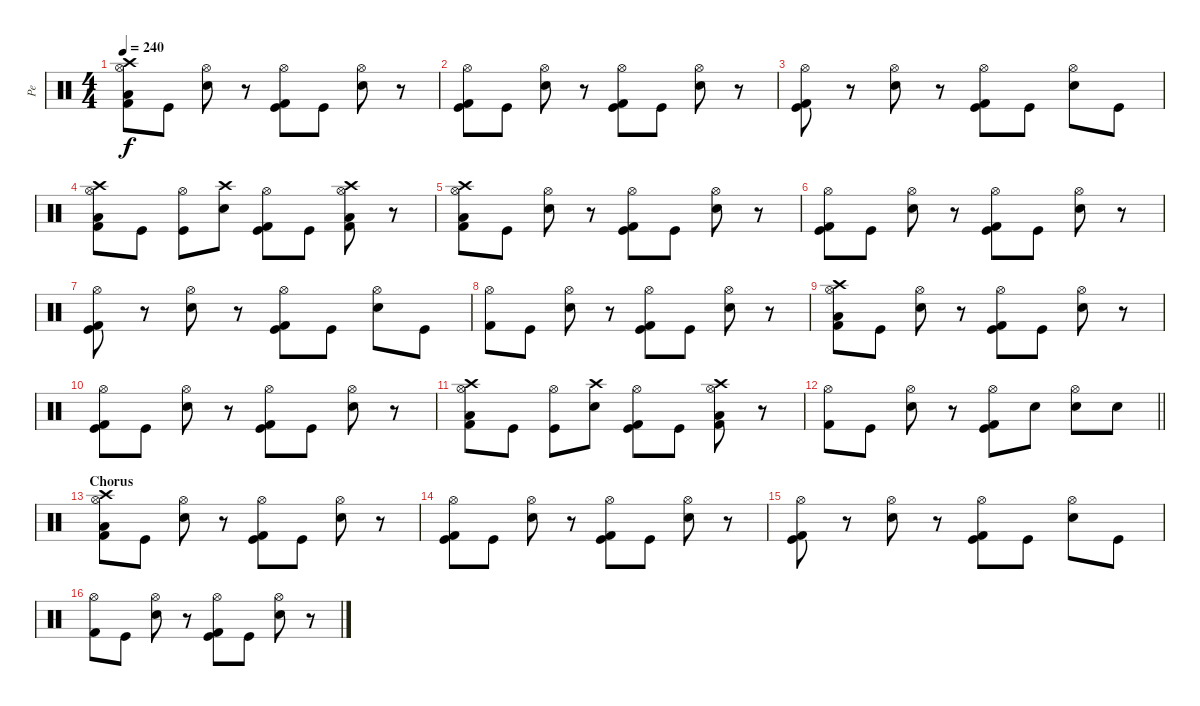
\track ("Pe" "Pe") {instrument percussion}
\staff {score}
\articulation defaults
\ts (4 4)
\tempo 240
\clef neutral
\ks c
("Low Tom (hit)" "Hi-Hat (open)" "Kick (hit) 2" "Crash high (hit)").8{dy f} "Kick (hit)".8 ("Electric Snare (hit)" "Hi-Hat (open)").8 r.8 ("Kick (hit)" "Hi-Hat (open)" "Kick (hit) 2").8 "Kick (hit)".8 ("Electric Snare (hit)" "Hi-Hat (open)").8 r.8 |
("Kick (hit)" "Hi-Hat (open)" "Kick (hit) 2").8 "Kick (hit)".8 ("Electric Snare (hit)" "Hi-Hat (open)").8 r.8 ("Kick (hit)" "Hi-Hat (open)" "Kick (hit) 2").8 "Kick (hit)".8 ("Electric Snare (hit)" "Hi-Hat (open)").8 r.8 |
("Kick (hit)" "Hi-Hat (open)" "Kick (hit) 2").8 r.8 ("Electric Snare (hit)" "Hi-Hat (open)").8 r.8 ("Kick (hit)" "Hi-Hat (open)" "Kick (hit) 2").8 "Kick (hit)".8 ("Electric Snare (hit)" "Hi-Hat (open)").8 "Kick (hit)".8 |
("Low Tom (hit)" "Hi-Hat (open)" "Kick (hit) 2" "Crash high (hit)").8 "Kick (hit)".8 ("Kick (hit)" "Hi-Hat (open)").8 ("Crash high (hit)" "Electric Snare (hit)").8 ("Kick (hit)" "Hi-Hat (open)" "Kick (hit) 2").8 "Kick (hit)".8 ("Low Tom (hit)" "Hi-Hat (open)" "Kick (hit) 2" "Crash high (hit)").8 r.8 |
("Low Tom (hit)" "Hi-Hat (open)" "Kick (hit) 2" "Crash high (hit)").8 "Kick (hit)".8 ("Electric Snare (hit)" "Hi-Hat (open)").8 r.8 ("Kick (hit)" "Hi-Hat (open)" "Kick (hit) 2").8 "Kick (hit)".8 ("Electric Snare (hit)" "Hi-Hat (open)").8 r.8 |
("Kick (hit)" "Hi-Hat (open)" "Kick (hit) 2").8 "Kick (hit)".8 ("Electric Snare (hit)" "Hi-Hat (open)").8 r.8 ("Kick (hit)" "Hi-Hat (open)" "Kick (hit) 2").8 "Kick (hit)".8 ("Electric Snare (hit)" "Hi-Hat (open)").8 r.8 |
("Kick (hit)" "Hi-Hat (open)" "Kick (hit) 2").8 r.8 ("Electric Snare (hit)" "Hi-Hat (open)").8 r.8 ("Kick (hit)" "Hi-Hat (open)" "Kick (hit) 2").8 "Kick (hit)".8 ("Electric Snare (hit)" "Hi-Hat (open)").8 "Kick (hit)".8 |
("Hi-Hat (open)" "Kick (hit) 2").8 "Kick (hit)".8 ("Electric Snare (hit)" "Hi-Hat (open)").8 r.8 ("Kick (hit)" "Hi-Hat (open)" "Kick (hit) 2").8 "Kick (hit)".8 ("Electric Snare (hit)" "Hi-Hat (open)").8 r.8 |
("Low Tom (hit)" "Hi-Hat (open)" "Kick (hit) 2" "Crash high (hit)").8 "Kick (hit)".8 ("Electric Snare (hit)" "Hi-Hat (open)").8 r.8 ("Kick (hit)" "Hi-Hat (open)" "Kick (hit) 2").8 "Kick (hit)".8 ("Electric Snare (hit)" "Hi-Hat (open)").8 r.8 |
("Kick (hit)" "Hi-Hat (open)" "Kick (hit) 2").8 "Kick (hit)".8 ("Electric Snare (hit)" "Hi-Hat (open)").8 r.8 ("Kick (hit)" "Hi-Hat (open)" "Kick (hit) 2").8 "Kick (hit)".8 ("Electric Snare (hit)" "Hi-Hat (open)").8 r.8 |
("Low Tom (hit)" "Hi-Hat (open)" "Kick (hit) 2" "Crash high (hit)").8 "Kick (hit)".8 ("Kick (hit)" "Hi-Hat (open)").8 ("Crash high (hit)" "Electric Snare (hit)").8 ("Kick (hit)" "Hi-Hat (open)" "Kick (hit) 2").8 "Kick (hit)".8 ("Low Tom (hit)" "Hi-Hat (open)" "Kick (hit) 2" "Crash high (hit)").8 r.8 |
\barLineRight lightlight
("Hi-Hat (open)" "Kick (hit) 2").8 "Kick (hit)".8 ("Electric Snare (hit)" "Hi-Hat (open)").8 r.8 ("Kick (hit)" "Hi-Hat (open)" "Kick (hit) 2").8 "Electric Snare (hit)".8 ("Electric Snare (hit)" "Hi-Hat (open)").8 "Electric Snare (hit)".8 |
\section ("" "Chorus")
("Low Tom (hit)" "Hi-Hat (open)" "Kick (hit) 2" "Crash high (hit)").8 "Kick (hit)".8 ("Electric Snare (hit)" "Hi-Hat (open)").8 r.8 ("Kick (hit)" "Hi-Hat (open)" "Kick (hit) 2").8 "Kick (hit)".8 ("Electric Snare (hit)" "Hi-Hat (open)").8 r.8 |
("Kick (hit)" "Hi-Hat (open)" "Kick (hit) 2").8 "Kick (hit)".8 ("Electric Snare (hit)" "Hi-Hat (open)").8 r.8 ("Kick (hit)" "Hi-Hat (open)" "Kick (hit) 2").8 "Kick (hit)".8 ("Electric Snare (hit)" "Hi-Hat (open)").8 r.8 |
("Kick (hit)" "Hi-Hat (open)" "Kick (hit) 2").8 r.8 ("Electric Snare (hit)" "Hi-Hat (open)").8 r.8 ("Kick (hit)" "Hi-Hat (open)" "Kick (hit) 2").8 "Kick (hit)".8 ("Electric Snare (hit)" "Hi-Hat (open)").8 "Kick (hit)".8 |
("Hi-Hat (open)" "Kick (hit) 2").8 "Kick (hit)".8 ("Electric Snare (hit)" "Hi-Hat (open)").8 r.8 ("Kick (hit)" "Hi-Hat (open)" "Kick (hit) 2").8 "Kick (hit)".8 ("Electric Snare (hit)" "Hi-Hat (open)").8 r.8
